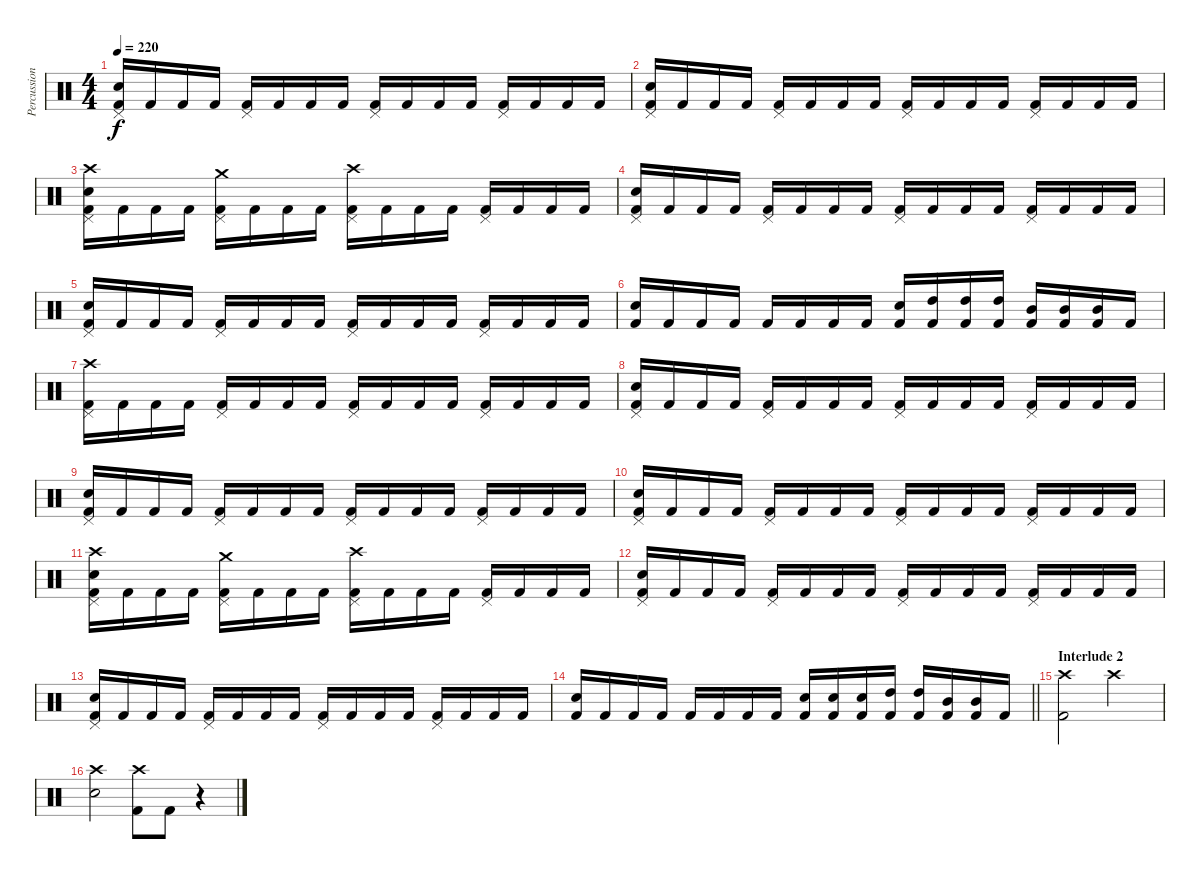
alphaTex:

\track ("Percussion" "Percussion") {instrument percussion}
\staff {score}
\articulation defaults
\ts (4 4)
\tempo 220
\clef neutral
\ks c
("Pedal Hi-Hat (hit)" "Snare (hit) 2" "Kick (hit) 2").16{dy f} "Kick (hit) 2".16 "Kick (hit) 2".16 "Kick (hit) 2".16 ("Pedal Hi-Hat (hit)" "Kick (hit) 2").16 "Kick (hit) 2".16 "Kick (hit) 2".16 "Kick (hit) 2".16 ("Pedal Hi-Hat (hit)" "Kick (hit) 2").16 "Kick (hit) 2".16 "Kick (hit) 2".16 "Kick (hit) 2".16 ("Pedal Hi-Hat (hit)" "Kick (hit) 2").16 "Kick (hit) 2".16 "Kick (hit) 2".16 "Kick (hit) 2".16 |
("Pedal Hi-Hat (hit)" "Snare (hit) 2" "Kick (hit) 2").16 "Kick (hit) 2".16 "Kick (hit) 2".16 "Kick (hit) 2".16 ("Pedal Hi-Hat (hit)" "Kick (hit) 2").16 "Kick (hit) 2".16 "Kick (hit) 2".16 "Kick (hit) 2".16 ("Pedal Hi-Hat (hit)" "Kick (hit) 2").16 "Kick (hit) 2".16 "Kick (hit) 2".16 "Kick (hit) 2".16 ("Pedal Hi-Hat (hit)" "Kick (hit) 2").16 "Kick (hit) 2".16 "Kick (hit) 2".16 "Kick (hit) 2".16 |
("Crash high (hit)" "Pedal Hi-Hat (hit)" "Snare (hit) 2" "Kick (hit) 2").16 "Kick (hit) 2".16 "Kick (hit) 2".16 "Kick (hit) 2".16 ("Crash medium (hit)" "Pedal Hi-Hat (hit)" "Kick (hit) 2").16 "Kick (hit) 2".16 "Kick (hit) 2".16 "Kick (hit) 2".16 ("Crash high (hit)" "Pedal Hi-Hat (hit)" "Kick (hit) 2").16 "Kick (hit) 2".16 "Kick (hit) 2".16 "Kick (hit) 2".16 ("Pedal Hi-Hat (hit)" "Kick (hit) 2").16 "Kick (hit) 2".16 "Kick (hit) 2".16 "Kick (hit) 2".16 |
("Pedal Hi-Hat (hit)" "Snare (hit) 2" "Kick (hit) 2").16 "Kick (hit) 2".16 "Kick (hit) 2".16 "Kick (hit) 2".16 ("Pedal Hi-Hat (hit)" "Kick (hit) 2").16 "Kick (hit) 2".16 "Kick (hit) 2".16 "Kick (hit) 2".16 ("Pedal Hi-Hat (hit)" "Kick (hit) 2").16 "Kick (hit) 2".16 "Kick (hit) 2".16 "Kick (hit) 2".16 ("Pedal Hi-Hat (hit)" "Kick (hit) 2").16 "Kick (hit) 2".16 "Kick (hit) 2".16 "Kick (hit) 2".16 |
("Pedal Hi-Hat (hit)" "Snare (hit) 2" "Kick (hit) 2").16 "Kick (hit) 2".16 "Kick (hit) 2".16 "Kick (hit) 2".16 ("Pedal Hi-Hat (hit)" "Kick (hit) 2").16 "Kick (hit) 2".16 "Kick (hit) 2".16 "Kick (hit) 2".16 ("Pedal Hi-Hat (hit)" "Kick (hit) 2").16 "Kick (hit) 2".16 "Kick (hit) 2".16 "Kick (hit) 2".16 ("Pedal Hi-Hat (hit)" "Kick (hit) 2").16 "Kick (hit) 2".16 "Kick (hit) 2".16 "Kick (hit) 2".16 |
("Snare (hit) 2" "Kick (hit) 2").16 "Kick (hit) 2".16 "Kick (hit) 2".16 "Kick (hit) 2".16 "Kick (hit) 2".16 "Kick (hit) 2".16 "Kick (hit) 2".16 "Kick (hit) 2".16 ("Snare (hit) 2" "Kick (hit) 2").16 ("High Tom (hit)" "Kick (hit) 2").16 ("High Tom (hit)" "Kick (hit) 2").16 ("High Tom (hit)" "Kick (hit) 2").16 ("Mid Tom (hit)" "Kick (hit) 2").16 ("Mid Tom (hit)" "Kick (hit) 2").16 ("Mid Tom (hit)" "Kick (hit) 2").16 "Kick (hit) 2".16 |
("Crash high (hit)" "Pedal Hi-Hat (hit)" "Kick (hit) 2").16 "Kick (hit) 2".16 "Kick (hit) 2".16 "Kick (hit) 2".16 ("Pedal Hi-Hat (hit)" "Kick (hit) 2").16 "Kick (hit) 2".16 "Kick (hit) 2".16 "Kick (hit) 2".16 ("Pedal Hi-Hat (hit)" "Kick (hit) 2").16 "Kick (hit) 2".16 "Kick (hit) 2".16 "Kick (hit) 2".16 ("Pedal Hi-Hat (hit)" "Kick (hit) 2").16 "Kick (hit) 2".16 "Kick (hit) 2".16 "Kick (hit) 2".16 |
("Pedal Hi-Hat (hit)" "Snare (hit) 2" "Kick (hit) 2").16 "Kick (hit) 2".16 "Kick (hit) 2".16 "Kick (hit) 2".16 ("Pedal Hi-Hat (hit)" "Kick (hit) 2").16 "Kick (hit) 2".16 "Kick (hit) 2".16 "Kick (hit) 2".16 ("Pedal Hi-Hat (hit)" "Kick (hit) 2").16 "Kick (hit) 2".16 "Kick (hit) 2".16 "Kick (hit) 2".16 ("Pedal Hi-Hat (hit)" "Kick (hit) 2").16 "Kick (hit) 2".16 "Kick (hit) 2".16 "Kick (hit) 2".16 |
("Pedal Hi-Hat (hit)" "Snare (hit) 2" "Kick (hit) 2").16 "Kick (hit) 2".16 "Kick (hit) 2".16 "Kick (hit) 2".16 ("Pedal Hi-Hat (hit)" "Kick (hit) 2").16 "Kick (hit) 2".16 "Kick (hit) 2".16 "Kick (hit) 2".16 ("Pedal Hi-Hat (hit)" "Kick (hit) 2").16 "Kick (hit) 2".16 "Kick (hit) 2".16 "Kick (hit) 2".16 ("Pedal Hi-Hat (hit)" "Kick (hit) 2").16 "Kick (hit) 2".16 "Kick (hit) 2".16 "Kick (hit) 2".16 |
("Pedal Hi-Hat (hit)" "Snare (hit) 2" "Kick (hit) 2").16 "Kick (hit) 2".16 "Kick (hit) 2".16 "Kick (hit) 2".16 ("Pedal Hi-Hat (hit)" "Kick (hit) 2").16 "Kick (hit) 2".16 "Kick (hit) 2".16 "Kick (hit) 2".16 ("Pedal Hi-Hat (hit)" "Kick (hit) 2").16 "Kick (hit) 2".16 "Kick (hit) 2".16 "Kick (hit) 2".16 ("Pedal Hi-Hat (hit)" "Kick (hit) 2").16 "Kick (hit) 2".16 "Kick (hit) 2".16 "Kick (hit) 2".16 |
("Crash high (hit)" "Pedal Hi-Hat (hit)" "Snare (hit) 2" "Kick (hit) 2").16 "Kick (hit) 2".16 "Kick (hit) 2".16 "Kick (hit) 2".16 ("Crash medium (hit)" "Pedal Hi-Hat (hit)" "Kick (hit) 2").16 "Kick (hit) 2".16 "Kick (hit) 2".16 "Kick (hit) 2".16 ("Crash high (hit)" "Pedal Hi-Hat (hit)" "Kick (hit) 2").16 "Kick (hit) 2".16 "Kick (hit) 2".16 "Kick (hit) 2".16 ("Pedal Hi-Hat (hit)" "Kick (hit) 2").16 "Kick (hit) 2".16 "Kick (hit) 2".16 "Kick (hit) 2".16 |
("Pedal Hi-Hat (hit)" "Snare (hit) 2" "Kick (hit) 2").16 "Kick (hit) 2".16 "Kick (hit) 2".16 "Kick (hit) 2".16 ("Pedal Hi-Hat (hit)" "Kick (hit) 2").16 "Kick (hit) 2".16 "Kick (hit) 2".16 "Kick (hit) 2".16 ("Pedal Hi-Hat (hit)" "Kick (hit) 2").16 "Kick (hit) 2".16 "Kick (hit) 2".16 "Kick (hit) 2".16 ("Pedal Hi-Hat (hit)" "Kick (hit) 2").16 "Kick (hit) 2".16 "Kick (hit) 2".16 "Kick (hit) 2".16 |
("Pedal Hi-Hat (hit)" "Snare (hit) 2" "Kick (hit) 2").16 "Kick (hit) 2".16 "Kick (hit) 2".16 "Kick (hit) 2".16 ("Pedal Hi-Hat (hit)" "Kick (hit) 2").16 "Kick (hit) 2".16 "Kick (hit) 2".16 "Kick (hit) 2".16 ("Pedal Hi-Hat (hit)" "Kick (hit) 2").16 "Kick (hit) 2".16 "Kick (hit) 2".16 "Kick (hit) 2".16 ("Pedal Hi-Hat (hit)" "Kick (hit) 2").16 "Kick (hit) 2".16 "Kick (hit) 2".16 "Kick (hit) 2".16 |
\barLineRight lightlight
("Snare (hit) 2" "Kick (hit) 2").16 "Kick (hit) 2".16 "Kick (hit) 2".16 "Kick (hit) 2".16 "Kick (hit) 2".16 "Kick (hit) 2".16 "Kick (hit) 2".16 "Kick (hit) 2".16 ("Snare (hit) 2" "Kick (hit) 2").16 ("Snare (hit) 2" "Kick (hit) 2").16 ("Snare (hit) 2" "Kick (hit) 2").16 ("High Tom (hit)" "Kick (hit) 2").16 ("High Tom (hit)" "Kick (hit) 2").16 ("Mid Tom (hit)" "Kick (hit) 2").16 ("Mid Tom (hit)" "Kick (hit) 2").16 "Kick (hit) 2".16 |
\section ("" "Interlude 2")
("Crash high (hit)" "Kick (hit) 2").2 "Crash high (hit)".2 |
("Crash high (hit)" "Snare (hit) 2").2 ("Crash high (hit)" "Kick (hit) 2").8 "Kick (hit) 2".8 r.4
